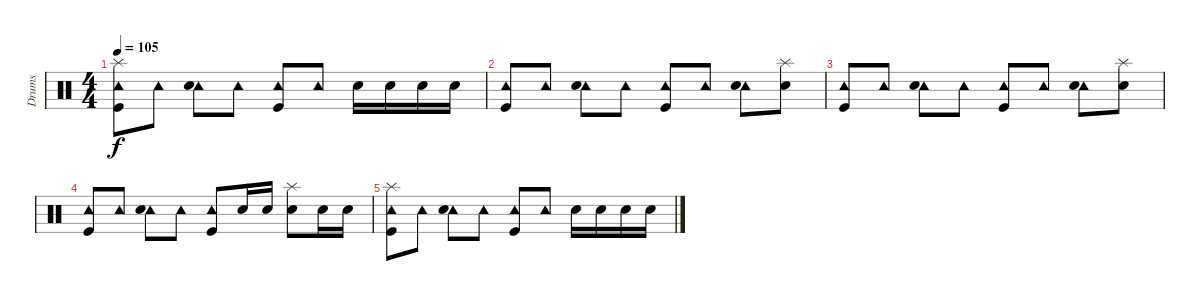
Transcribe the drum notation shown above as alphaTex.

\track ("Drums" "Drums") {instrument percussion}
\staff {score}
\articulation defaults
\ts (4 4)
\tempo 105
\clef neutral
\ks c
("Tambourine (hit)" "Kick (hit)" "Splash (hit)").8{dy f} "Tambourine (hit)".8 ("Tambourine (hit)" "Snare (hit) 2").8 "Tambourine (hit)".8 ("Tambourine (hit)" "Kick (hit)").8 "Tambourine (hit)".8 "Snare (hit) 2".16 "Snare (hit) 2".16 "Snare (hit) 2".16 "Snare (hit) 2".16 |
("Tambourine (hit)" "Kick (hit)").8 "Tambourine (hit)".8 ("Tambourine (hit)" "Snare (hit) 2").8 "Tambourine (hit)".8 ("Tambourine (hit)" "Kick (hit)").8 "Tambourine (hit)".8 ("Tambourine (hit)" "Snare (hit) 2").8 ("Splash (hit)" "Snare (hit) 2").8 |
("Tambourine (hit)" "Kick (hit)").8 "Tambourine (hit)".8 ("Tambourine (hit)" "Snare (hit) 2").8 "Tambourine (hit)".8 ("Tambourine (hit)" "Kick (hit)").8 "Tambourine (hit)".8 ("Tambourine (hit)" "Snare (hit) 2").8 ("Splash (hit)" "Snare (hit) 2").8 |
("Tambourine (hit)" "Kick (hit)").8 "Tambourine (hit)".8 ("Tambourine (hit)" "Snare (hit) 2").8 "Tambourine (hit)".8 ("Tambourine (hit)" "Kick (hit)").8 "Snare (hit) 2".16 "Snare (hit) 2".16 ("Splash (hit)" "Snare (hit) 2").8 "Snare (hit) 2".16 "Snare (hit) 2".16 |
("Tambourine (hit)" "Kick (hit)" "Splash (hit)").8 "Tambourine (hit)".8 ("Tambourine (hit)" "Snare (hit) 2").8 "Tambourine (hit)".8 ("Tambourine (hit)" "Kick (hit)").8 "Tambourine (hit)".8 "Snare (hit) 2".16 "Snare (hit) 2".16 "Snare (hit) 2".16 "Snare (hit) 2".16
